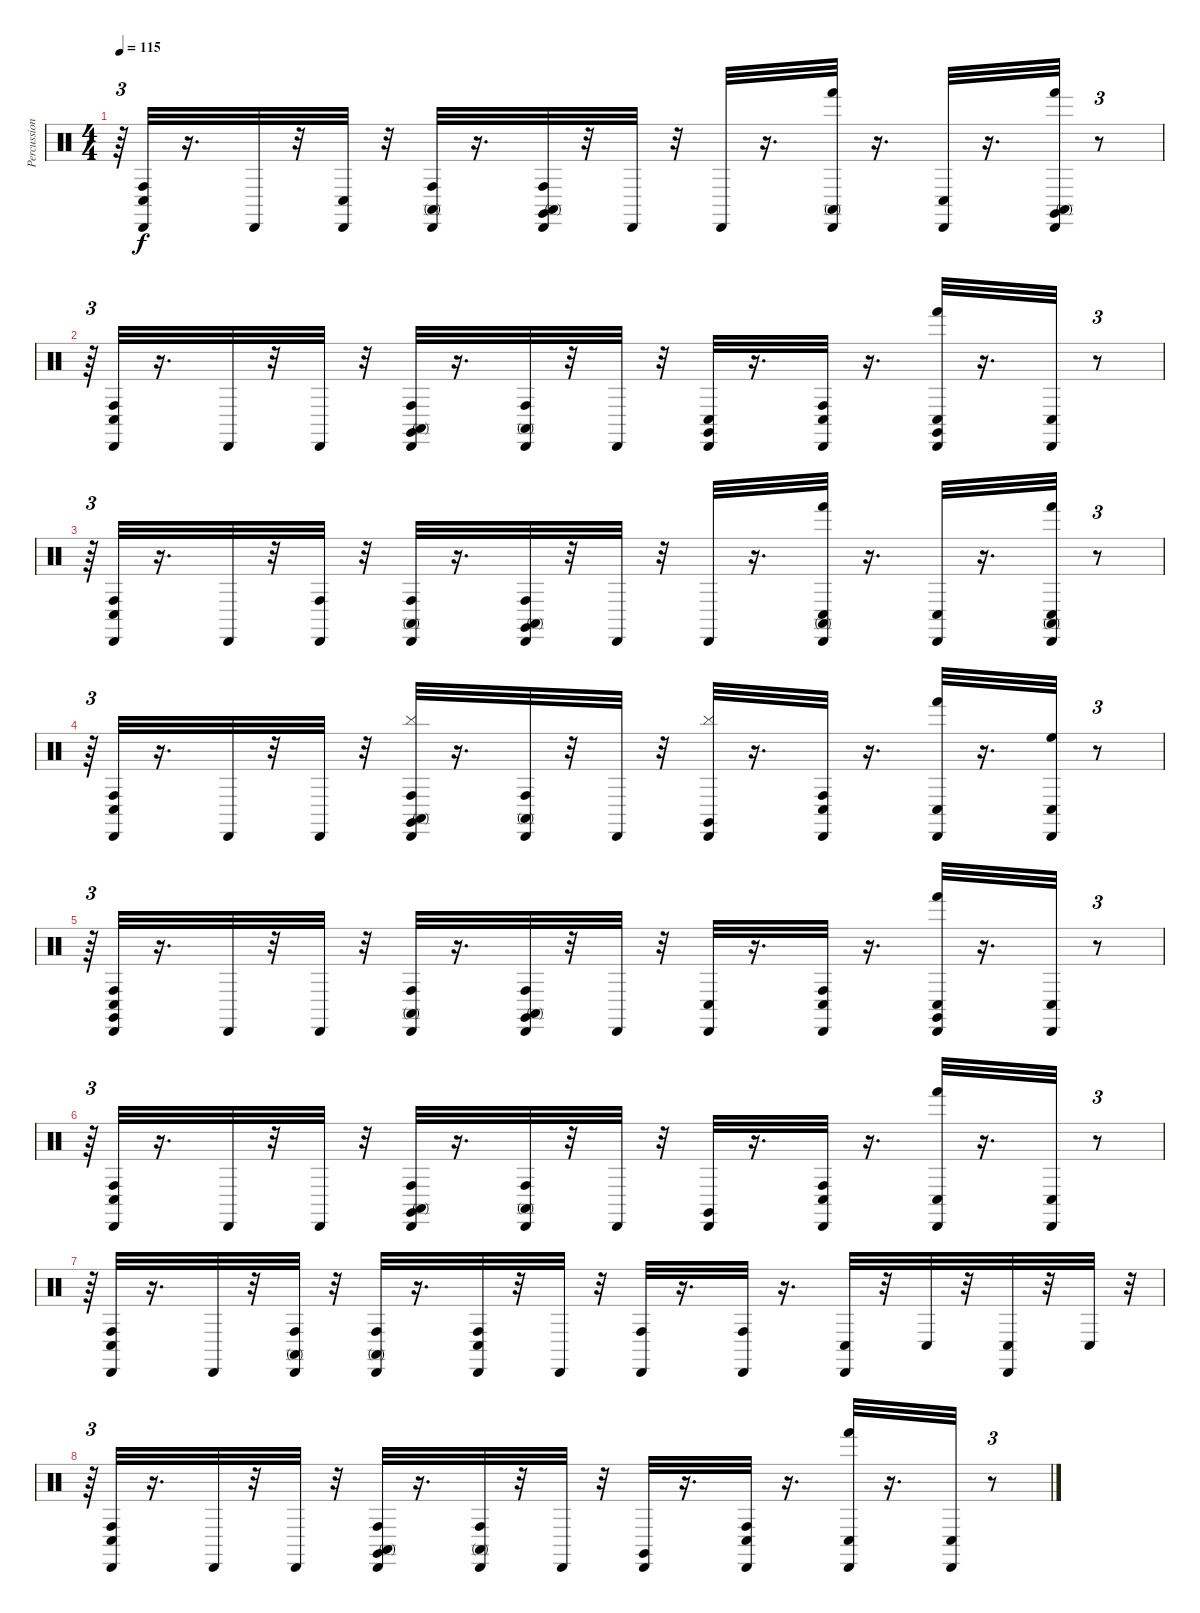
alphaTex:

\track ("Percussion" "Percussion") {instrument percussion}
\staff {score}
\articulation defaults
\ts (4 4)
\tempo 115
\clef neutral
\ks c
r.64{tu (3 2) dy f} ("Cabasa (hit)" "Conga low (hit)" "Conga high (hit)").32 r.16{d} "Cabasa (hit)".32 r.32 ("Cabasa (hit)" "Conga low (hit)").32 r.32 ("Cabasa (hit)" "Conga high (hit)" "Conga high (mute)").32 r.16{d} ("Cabasa (hit)" "Conga high (mute)" "Conga high (hit)" "Claves (hit)").32 r.32 "Cabasa (hit)".32 r.32 "Cabasa (hit)".32 r.16{d} ("Conga high (mute)" "Cabasa (hit)" "Hand (hit)").32 r.16{d} ("Cabasa (hit)" "Conga low (hit)").32 r.16{d} ("Cabasa (hit)" "Conga high (mute)" "Hand (hit)" "Claves (hit)").32 r.8{tu (3 2)} |
r.64{tu (3 2)} ("Conga low (hit)" "Cabasa (hit)" "Conga high (hit)").32 r.16{d} "Cabasa (hit)".32 r.32 "Cabasa (hit)".32 r.32 ("Cabasa (hit)" "Claves (hit)" "Conga high (hit)" "Conga high (mute)").32 r.16{d} ("Cabasa (hit)" "Conga high (hit)" "Conga high (mute)").32 r.32 "Cabasa (hit)".32 r.32 ("Conga low (hit)" "Cabasa (hit)" "Claves (hit)").32 r.16{d} ("Cabasa (hit)" "Conga high (hit)" "Conga low (hit)").32 r.16{d} ("Cabasa (hit)" "Claves (hit)" "Conga low (hit)" "Hand (hit)").32 r.16{d} ("Conga low (hit)" "Cabasa (hit)").32 r.8{tu (3 2)} |
r.64{tu (3 2)} ("Conga high (hit)" "Conga low (hit)" "Cabasa (hit)").32 r.16{d} "Cabasa (hit)".32 r.32 ("Conga high (hit)" "Cabasa (hit)").32 r.32 ("Cabasa (hit)" "Conga high (hit)" "Conga high (mute)").32 r.16{d} ("Claves (hit)" "Conga high (hit)" "Cabasa (hit)" "Conga high (mute)").32 r.32 "Cabasa (hit)".32 r.32 "Cabasa (hit)".32 r.16{d} ("Conga high (mute)" "Hand (hit)" "Cabasa (hit)" "Conga low (hit)").32 r.16{d} ("Cabasa (hit)" "Conga low (hit)").32 r.16{d} ("Hand (hit)" "Conga high (mute)" "Conga low (hit)" "Cabasa (hit)").32 r.8{tu (3 2)} |
r.64{tu (3 2)} ("Cabasa (hit)" "Conga high (hit)" "Conga low (hit)").32 r.16{d} "Cabasa (hit)".32 r.32 "Cabasa (hit)".32 r.32 ("Conga high (mute)" "Claves (hit)" "Conga high (hit)" "Cabasa (hit)" "Cymbal (hit)").32 r.16{d} ("Cabasa (hit)" "Conga high (mute)" "Conga high (hit)").32 r.32 "Cabasa (hit)".32 r.32 ("Cymbal (hit)" "Cabasa (hit)" "Claves (hit)").32 r.16{d} ("Cabasa (hit)" "Conga low (hit)" "Conga high (hit)").32 r.16{d} ("Conga low (hit)" "Hand (hit)" "Cabasa (hit)").32 r.16{d} ("High Floor Tom (hit)" "Conga low (hit)" "Cabasa (hit)").32 r.8{tu (3 2)} |
r.64{tu (3 2)} ("Conga low (hit)" "Cabasa (hit)" "Conga high (hit)" "Claves (hit)").32 r.16{d} "Cabasa (hit)".32 r.32 "Cabasa (hit)".32 r.32 ("Conga high (mute)" "Cabasa (hit)" "Conga high (hit)").32 r.16{d} ("Conga high (mute)" "Cabasa (hit)" "Claves (hit)" "Conga high (hit)").32 r.32 "Cabasa (hit)".32 r.32 ("Conga low (hit)" "Cabasa (hit)").32 r.16{d} ("Cabasa (hit)" "Conga high (hit)" "Conga low (hit)").32 r.16{d} ("Cabasa (hit)" "Hand (hit)" "Claves (hit)" "Conga low (hit)").32 r.16{d} ("Conga low (hit)" "Cabasa (hit)").32 r.8{tu (3 2)} |
r.64{tu (3 2)} ("Cabasa (hit)" "Conga high (hit)" "Conga low (hit)").32 r.16{d} "Cabasa (hit)".32 r.32 "Cabasa (hit)".32 r.32 ("Conga high (hit)" "Cabasa (hit)" "Claves (hit)" "Conga high (mute)").32 r.16{d} ("Conga high (hit)" "Cabasa (hit)" "Conga high (mute)").32 r.32 "Cabasa (hit)".32 r.32 ("Cabasa (hit)" "Claves (hit)").32 r.16{d} ("Cabasa (hit)" "Conga high (hit)" "Conga low (hit)").32 r.16{d} ("Cabasa (hit)" "Hand (hit)" "Conga low (hit)").32 r.16{d} ("Cabasa (hit)" "Conga low (hit)").32 r.8{tu (3 2)} |
r.64{tu (3 2)} ("Cabasa (hit)" "Conga high (hit)" "Conga low (hit)").32 r.16{d} "Cabasa (hit)".32 r.32 ("Cabasa (hit)" "Conga high (hit)" "Conga high (mute)").32 r.32 ("Conga high (hit)" "Cabasa (hit)" "Conga high (mute)").32 r.16{d} ("Conga low (hit)" "Cabasa (hit)" "Conga high (hit)").32 r.32 "Cabasa (hit)".32 r.32 ("Cabasa (hit)" "Conga high (hit)").32 r.16{d} ("Conga high (hit)" "Cabasa (hit)").32 r.16{d} ("Cabasa (hit)" "Conga low (hit)").32 r.32 "Conga low (hit)".32 r.32 ("Conga low (hit)" "Cabasa (hit)").32 r.32 "Conga low (hit)".32 r.32{tu (3 2)} |
r.64{tu (3 2)} ("Conga high (hit)" "Conga low (hit)" "Cabasa (hit)").32 r.16{d} "Cabasa (hit)".32 r.32 "Cabasa (hit)".32 r.32 ("Conga high (hit)" "Conga high (mute)" "Cabasa (hit)" "Claves (hit)").32 r.16{d} ("Cabasa (hit)" "Conga high (hit)" "Conga high (mute)").32 r.32 "Cabasa (hit)".32 r.32 ("Claves (hit)" "Cabasa (hit)").32 r.16{d} ("Conga high (hit)" "Cabasa (hit)" "Conga low (hit)").32 r.16{d} ("Hand (hit)" "Conga low (hit)" "Cabasa (hit)").32 r.16{d} ("Conga low (hit)" "Cabasa (hit)").32 r.8{tu (3 2)}
